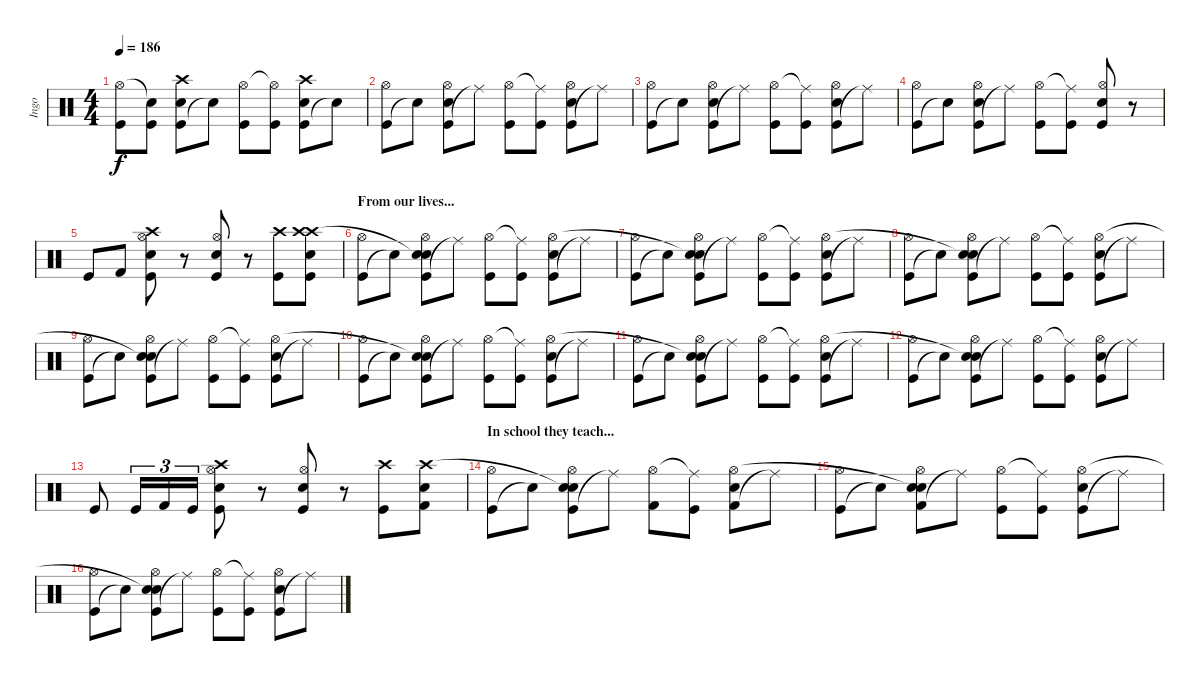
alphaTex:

\track ("Ingo" "Ingo") {instrument percussion}
\staff {score}
\articulation defaults
\ts (4 4)
\tempo 186
\clef neutral
\ks c
("Kick (hit)" "Hi-Hat (open)").8{dy f} ("Kick (hit)" "Snare (hit)"{t}).8 ("Kick (hit)" "Snare (hit) 2" "Crash high (hit)").8 "Snare (hit)"{t}.8 ("Kick (hit)" "Hi-Hat (open)").8 ("Kick (hit)" "Hi-Hat (open)"{t}).8 ("Kick (hit)" "Snare (hit) 2" "Crash high (hit)").8 "Snare (hit)"{t}.8 |
("Kick (hit)" "Hi-Hat (open)").8 "Snare (hit)"{t}.8 ("Kick (hit)" "Snare (hit) 2" "Hi-Hat (open)").8 "Ride (middle)"{t}.8 ("Kick (hit)" "Hi-Hat (open)").8 ("Kick (hit)" "Ride (middle)"{t}).8 ("Kick (hit)" "Snare (hit) 2" "Hi-Hat (open)").8 "Ride (middle)"{t}.8 |
("Kick (hit)" "Hi-Hat (open)").8 "Snare (hit)"{t}.8 ("Kick (hit)" "Snare (hit) 2" "Hi-Hat (open)").8 "Ride (middle)"{t}.8 ("Kick (hit)" "Hi-Hat (open)").8 ("Kick (hit)" "Ride (middle)"{t}).8 ("Kick (hit)" "Snare (hit) 2" "Hi-Hat (open)").8 "Ride (middle)"{t}.8 |
("Kick (hit)" "Hi-Hat (open)").8 "Snare (hit)"{t}.8 ("Kick (hit)" "Snare (hit) 2" "Hi-Hat (open)").8 "Ride (middle)"{t}.8 ("Kick (hit)" "Hi-Hat (open)").8 ("Kick (hit)" "Ride (middle)"{t}).8 ("Kick (hit)" "Snare (hit) 2" "Hi-Hat (open)").8 r.8 |
"Kick (hit)".8 "Kick (hit) 2".8 ("Kick (hit)" "Snare (hit) 2" "Hi-Hat (open)" "Crash high (hit)").8 r.8 ("Kick (hit)" "Snare (hit) 2" "Hi-Hat (open)").8 r.8 ("Kick (hit)" "Crash high (hit)").8 ("Kick (hit)" "Snare (hit) 2" "Crash high (hit)" "Crash high (hit)").8 |
\section ("" "From our lives...")
("Kick (hit)" "Hi-Hat (open)").8 "Snare (hit)"{t}.8 ("Kick (hit)" "Snare (hit) 2" "Snare (hit)"{t} "Hi-Hat (open)").8 "Ride (middle)"{t}.8 ("Kick (hit)" "Hi-Hat (open)").8 ("Kick (hit)" "Ride (middle)"{t}).8 ("Kick (hit)" "Snare (hit) 2" "Hi-Hat (open)").8 "Ride (middle)"{t}.8 |
("Kick (hit)" "Hi-Hat (open)").8 "Snare (hit)"{t}.8 ("Kick (hit)" "Snare (hit) 2" "Snare (hit)"{t} "Hi-Hat (open)").8 "Ride (middle)"{t}.8 ("Kick (hit)" "Hi-Hat (open)").8 ("Kick (hit)" "Ride (middle)"{t}).8 ("Kick (hit)" "Snare (hit) 2" "Hi-Hat (open)").8 "Ride (middle)"{t}.8 |
("Kick (hit)" "Hi-Hat (open)").8 "Snare (hit)"{t}.8 ("Kick (hit)" "Snare (hit) 2" "Snare (hit)"{t} "Hi-Hat (open)").8 "Ride (middle)"{t}.8 ("Kick (hit)" "Hi-Hat (open)").8 ("Kick (hit)" "Ride (middle)"{t}).8 ("Kick (hit)" "Snare (hit) 2" "Hi-Hat (open)").8 "Ride (middle)"{t}.8 |
("Kick (hit)" "Hi-Hat (open)").8 "Snare (hit)"{t}.8 ("Kick (hit)" "Snare (hit) 2" "Snare (hit)"{t} "Hi-Hat (open)").8 "Ride (middle)"{t}.8 ("Kick (hit)" "Hi-Hat (open)").8 ("Kick (hit)" "Ride (middle)"{t}).8 ("Kick (hit)" "Snare (hit) 2" "Hi-Hat (open)").8 "Ride (middle)"{t}.8 |
("Kick (hit)" "Hi-Hat (open)").8 "Snare (hit)"{t}.8 ("Kick (hit)" "Snare (hit) 2" "Snare (hit)"{t} "Hi-Hat (open)").8 "Ride (middle)"{t}.8 ("Kick (hit)" "Hi-Hat (open)").8 ("Kick (hit)" "Ride (middle)"{t}).8 ("Kick (hit)" "Snare (hit) 2" "Hi-Hat (open)").8 "Ride (middle)"{t}.8 |
("Kick (hit)" "Hi-Hat (open)").8 "Snare (hit)"{t}.8 ("Kick (hit)" "Snare (hit) 2" "Snare (hit)"{t} "Hi-Hat (open)").8 "Ride (middle)"{t}.8 ("Kick (hit)" "Hi-Hat (open)").8 ("Kick (hit)" "Ride (middle)"{t}).8 ("Kick (hit)" "Snare (hit) 2" "Hi-Hat (open)").8 "Ride (middle)"{t}.8 |
("Kick (hit)" "Hi-Hat (open)").8 "Snare (hit)"{t}.8 ("Kick (hit)" "Snare (hit) 2" "Snare (hit)"{t} "Hi-Hat (open)").8 "Ride (middle)"{t}.8 ("Kick (hit)" "Hi-Hat (open)").8 ("Kick (hit)" "Ride (middle)"{t}).8 ("Kick (hit)" "Snare (hit) 2" "Hi-Hat (open)").8 "Ride (middle)"{t}.8 |
"Kick (hit)".8 "Kick (hit)".16{tu (3 2)} "Kick (hit) 2".16{tu (3 2)} "Kick (hit)".16{tu (3 2)} ("Kick (hit)" "Snare (hit) 2" "Hi-Hat (open)" "Crash high (hit)").8 r.8 ("Kick (hit)" "Snare (hit) 2" "Hi-Hat (open)").8 r.8 ("Kick (hit)" "Crash high (hit)").8 ("Kick (hit) 2" "Snare (hit) 2" "Crash high (hit)").8 |
\section ("" "In school they teach...")
("Kick (hit)" "Hi-Hat (open)").8 "Snare (hit)"{t}.8 ("Kick (hit)" "Snare (hit) 2" "Snare (hit)"{t} "Hi-Hat (open)").8 "Ride (middle)"{t}.8 ("Kick (hit) 2" "Hi-Hat (open)").8 ("Kick (hit)" "Ride (middle)"{t}).8 ("Kick (hit) 2" "Snare (hit) 2" "Hi-Hat (open)").8 "Ride (middle)"{t}.8 |
("Kick (hit)" "Hi-Hat (open)").8 "Snare (hit)"{t}.8 ("Kick (hit) 2" "Snare (hit) 2" "Snare (hit)"{t} "Hi-Hat (open)").8 "Ride (middle)"{t}.8 ("Kick (hit)" "Hi-Hat (open)").8 ("Kick (hit)" "Ride (middle)"{t}).8 ("Kick (hit)" "Snare (hit) 2" "Hi-Hat (open)").8 "Ride (middle)"{t}.8 |
("Kick (hit)" "Hi-Hat (open)").8 "Snare (hit)"{t}.8 ("Kick (hit)" "Snare (hit) 2" "Snare (hit)"{t} "Hi-Hat (open)").8 "Ride (middle)"{t}.8 ("Kick (hit)" "Hi-Hat (open)").8 ("Kick (hit)" "Ride (middle)"{t}).8 ("Kick (hit)" "Snare (hit) 2" "Hi-Hat (open)").8 "Ride (middle)"{t}.8
